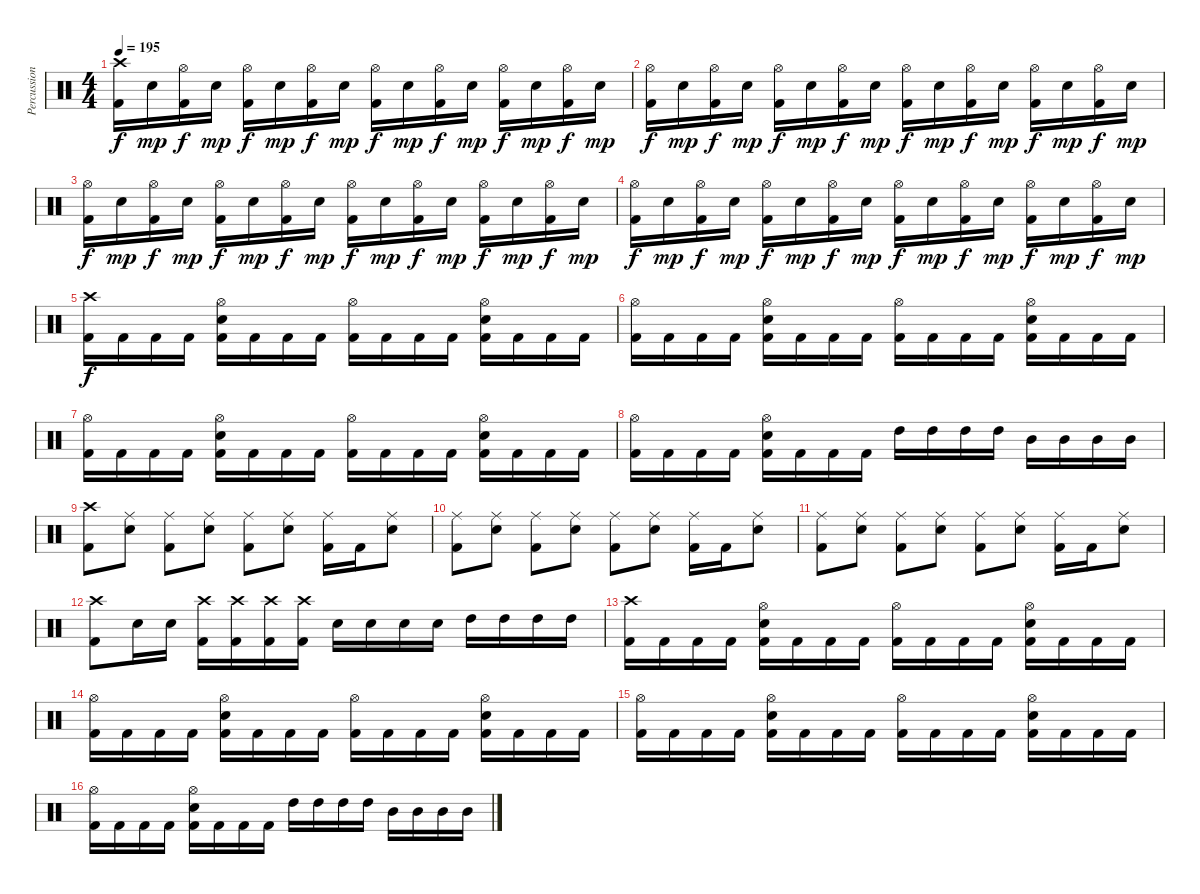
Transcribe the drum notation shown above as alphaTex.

\track ("Percussion" "Percussion") {instrument percussion}
\staff {score}
\articulation defaults
\ts (4 4)
\tempo 195
\clef neutral
\ks c
("Crash high (hit)" "Kick (hit) 2").16{dy f} "Snare (hit) 2".16{dy mp} ("Hi-Hat (open)" "Kick (hit) 2").16{dy f} "Snare (hit) 2".16{dy mp} ("Hi-Hat (open)" "Kick (hit) 2").16{dy f} "Snare (hit) 2".16{dy mp} ("Hi-Hat (open)" "Kick (hit) 2").16{dy f} "Snare (hit) 2".16{dy mp} ("Hi-Hat (open)" "Kick (hit) 2").16{dy f} "Snare (hit) 2".16{dy mp} ("Hi-Hat (open)" "Kick (hit) 2").16{dy f} "Snare (hit) 2".16{dy mp} ("Hi-Hat (open)" "Kick (hit) 2").16{dy f} "Snare (hit) 2".16{dy mp} ("Hi-Hat (open)" "Kick (hit) 2").16{dy f} "Snare (hit) 2".16{dy mp} |
("Hi-Hat (open)" "Kick (hit) 2").16{dy f} "Snare (hit) 2".16{dy mp} ("Hi-Hat (open)" "Kick (hit) 2").16{dy f} "Snare (hit) 2".16{dy mp} ("Hi-Hat (open)" "Kick (hit) 2").16{dy f} "Snare (hit) 2".16{dy mp} ("Hi-Hat (open)" "Kick (hit) 2").16{dy f} "Snare (hit) 2".16{dy mp} ("Hi-Hat (open)" "Kick (hit) 2").16{dy f} "Snare (hit) 2".16{dy mp} ("Hi-Hat (open)" "Kick (hit) 2").16{dy f} "Snare (hit) 2".16{dy mp} ("Hi-Hat (open)" "Kick (hit) 2").16{dy f} "Snare (hit) 2".16{dy mp} ("Hi-Hat (open)" "Kick (hit) 2").16{dy f} "Snare (hit) 2".16{dy mp} |
("Hi-Hat (open)" "Kick (hit) 2").16{dy f} "Snare (hit) 2".16{dy mp} ("Hi-Hat (open)" "Kick (hit) 2").16{dy f} "Snare (hit) 2".16{dy mp} ("Hi-Hat (open)" "Kick (hit) 2").16{dy f} "Snare (hit) 2".16{dy mp} ("Hi-Hat (open)" "Kick (hit) 2").16{dy f} "Snare (hit) 2".16{dy mp} ("Hi-Hat (open)" "Kick (hit) 2").16{dy f} "Snare (hit) 2".16{dy mp} ("Hi-Hat (open)" "Kick (hit) 2").16{dy f} "Snare (hit) 2".16{dy mp} ("Hi-Hat (open)" "Kick (hit) 2").16{dy f} "Snare (hit) 2".16{dy mp} ("Hi-Hat (open)" "Kick (hit) 2").16{dy f} "Snare (hit) 2".16{dy mp} |
("Hi-Hat (open)" "Kick (hit) 2").16{dy f} "Snare (hit) 2".16{dy mp} ("Hi-Hat (open)" "Kick (hit) 2").16{dy f} "Snare (hit) 2".16{dy mp} ("Hi-Hat (open)" "Kick (hit) 2").16{dy f} "Snare (hit) 2".16{dy mp} ("Hi-Hat (open)" "Kick (hit) 2").16{dy f} "Snare (hit) 2".16{dy mp} ("Hi-Hat (open)" "Kick (hit) 2").16{dy f} "Snare (hit) 2".16{dy mp} ("Hi-Hat (open)" "Kick (hit) 2").16{dy f} "Snare (hit) 2".16{dy mp} ("Hi-Hat (open)" "Kick (hit) 2").16{dy f} "Snare (hit) 2".16{dy mp} ("Hi-Hat (open)" "Kick (hit) 2").16{dy f} "Snare (hit) 2".16{dy mp} |
("Crash high (hit)" "Kick (hit) 2").16{dy f} "Kick (hit) 2".16 "Kick (hit) 2".16 "Kick (hit) 2".16 ("Snare (hit) 2" "Kick (hit) 2" "Hi-Hat (open)").16 "Kick (hit) 2".16 "Kick (hit) 2".16 "Kick (hit) 2".16 ("Hi-Hat (open)" "Kick (hit) 2").16 "Kick (hit) 2".16 "Kick (hit) 2".16 "Kick (hit) 2".16 ("Hi-Hat (open)" "Kick (hit) 2" "Snare (hit) 2").16 "Kick (hit) 2".16 "Kick (hit) 2".16 "Kick (hit) 2".16 |
("Hi-Hat (open)" "Kick (hit) 2").16 "Kick (hit) 2".16 "Kick (hit) 2".16 "Kick (hit) 2".16 ("Hi-Hat (open)" "Kick (hit) 2" "Snare (hit) 2").16 "Kick (hit) 2".16 "Kick (hit) 2".16 "Kick (hit) 2".16 ("Hi-Hat (open)" "Kick (hit) 2").16 "Kick (hit) 2".16 "Kick (hit) 2".16 "Kick (hit) 2".16 ("Hi-Hat (open)" "Kick (hit) 2" "Snare (hit) 2").16 "Kick (hit) 2".16 "Kick (hit) 2".16 "Kick (hit) 2".16 |
("Hi-Hat (open)" "Kick (hit) 2").16 "Kick (hit) 2".16 "Kick (hit) 2".16 "Kick (hit) 2".16 ("Hi-Hat (open)" "Kick (hit) 2" "Snare (hit) 2").16 "Kick (hit) 2".16 "Kick (hit) 2".16 "Kick (hit) 2".16 ("Hi-Hat (open)" "Kick (hit) 2").16 "Kick (hit) 2".16 "Kick (hit) 2".16 "Kick (hit) 2".16 ("Hi-Hat (open)" "Kick (hit) 2" "Snare (hit) 2").16 "Kick (hit) 2".16 "Kick (hit) 2".16 "Kick (hit) 2".16 |
("Hi-Hat (open)" "Kick (hit) 2").16 "Kick (hit) 2".16 "Kick (hit) 2".16 "Kick (hit) 2".16 ("Hi-Hat (open)" "Kick (hit) 2" "Snare (hit) 2").16 "Kick (hit) 2".16 "Kick (hit) 2".16 "Kick (hit) 2".16 "High Tom (hit)".16 "High Tom (hit)".16 "High Tom (hit)".16 "High Tom (hit)".16 "Mid Tom (hit)".16 "Mid Tom (hit)".16 "Mid Tom (hit)".16 "Mid Tom (hit)".16 |
("Crash high (hit)" "Kick (hit) 2").8 ("Ride (middle)" "Snare (hit) 2").8 ("Ride (middle)" "Kick (hit) 2").8 ("Ride (middle)" "Snare (hit) 2").8 ("Ride (middle)" "Kick (hit) 2").8 ("Ride (middle)" "Snare (hit) 2").8 ("Ride (middle)" "Kick (hit) 2").16 "Kick (hit) 2".16 ("Ride (middle)" "Snare (hit) 2").8 |
("Ride (middle)" "Kick (hit) 2").8 ("Ride (middle)" "Snare (hit) 2").8 ("Ride (middle)" "Kick (hit) 2").8 ("Ride (middle)" "Snare (hit) 2").8 ("Ride (middle)" "Kick (hit) 2").8 ("Ride (middle)" "Snare (hit) 2").8 ("Ride (middle)" "Kick (hit) 2").16 "Kick (hit) 2".16 ("Ride (middle)" "Snare (hit) 2").8 |
("Ride (middle)" "Kick (hit) 2").8 ("Ride (middle)" "Snare (hit) 2").8 ("Ride (middle)" "Kick (hit) 2").8 ("Ride (middle)" "Snare (hit) 2").8 ("Ride (middle)" "Kick (hit) 2").8 ("Ride (middle)" "Snare (hit) 2").8 ("Ride (middle)" "Kick (hit) 2").16 "Kick (hit) 2".16 ("Ride (middle)" "Snare (hit) 2").8 |
("Crash high (hit)" "Kick (hit) 2").8 "Snare (hit) 2".16 "Snare (hit) 2".16 ("Kick (hit) 2" "Crash high (hit)").16 ("Kick (hit) 2" "Crash high (hit)").16 ("Kick (hit) 2" "Crash high (hit)").16 ("Kick (hit) 2" "Crash high (hit)").16 "Snare (hit) 2".16 "Snare (hit) 2".16 "Snare (hit) 2".16 "Snare (hit) 2".16 "High Tom (hit)".16 "High Tom (hit)".16 "High Tom (hit)".16 "High Tom (hit)".16 |
("Crash high (hit)" "Kick (hit) 2").16 "Kick (hit) 2".16 "Kick (hit) 2".16 "Kick (hit) 2".16 ("Snare (hit) 2" "Kick (hit) 2" "Hi-Hat (open)").16 "Kick (hit) 2".16 "Kick (hit) 2".16 "Kick (hit) 2".16 ("Hi-Hat (open)" "Kick (hit) 2").16 "Kick (hit) 2".16 "Kick (hit) 2".16 "Kick (hit) 2".16 ("Hi-Hat (open)" "Kick (hit) 2" "Snare (hit) 2").16 "Kick (hit) 2".16 "Kick (hit) 2".16 "Kick (hit) 2".16 |
("Hi-Hat (open)" "Kick (hit) 2").16 "Kick (hit) 2".16 "Kick (hit) 2".16 "Kick (hit) 2".16 ("Hi-Hat (open)" "Kick (hit) 2" "Snare (hit) 2").16 "Kick (hit) 2".16 "Kick (hit) 2".16 "Kick (hit) 2".16 ("Hi-Hat (open)" "Kick (hit) 2").16 "Kick (hit) 2".16 "Kick (hit) 2".16 "Kick (hit) 2".16 ("Hi-Hat (open)" "Kick (hit) 2" "Snare (hit) 2").16 "Kick (hit) 2".16 "Kick (hit) 2".16 "Kick (hit) 2".16 |
("Hi-Hat (open)" "Kick (hit) 2").16 "Kick (hit) 2".16 "Kick (hit) 2".16 "Kick (hit) 2".16 ("Hi-Hat (open)" "Kick (hit) 2" "Snare (hit) 2").16 "Kick (hit) 2".16 "Kick (hit) 2".16 "Kick (hit) 2".16 ("Hi-Hat (open)" "Kick (hit) 2").16 "Kick (hit) 2".16 "Kick (hit) 2".16 "Kick (hit) 2".16 ("Hi-Hat (open)" "Kick (hit) 2" "Snare (hit) 2").16 "Kick (hit) 2".16 "Kick (hit) 2".16 "Kick (hit) 2".16 |
("Hi-Hat (open)" "Kick (hit) 2").16 "Kick (hit) 2".16 "Kick (hit) 2".16 "Kick (hit) 2".16 ("Hi-Hat (open)" "Kick (hit) 2" "Snare (hit) 2").16 "Kick (hit) 2".16 "Kick (hit) 2".16 "Kick (hit) 2".16 "High Tom (hit)".16 "High Tom (hit)".16 "High Tom (hit)".16 "High Tom (hit)".16 "Mid Tom (hit)".16 "Mid Tom (hit)".16 "Mid Tom (hit)".16 "Mid Tom (hit)".16
